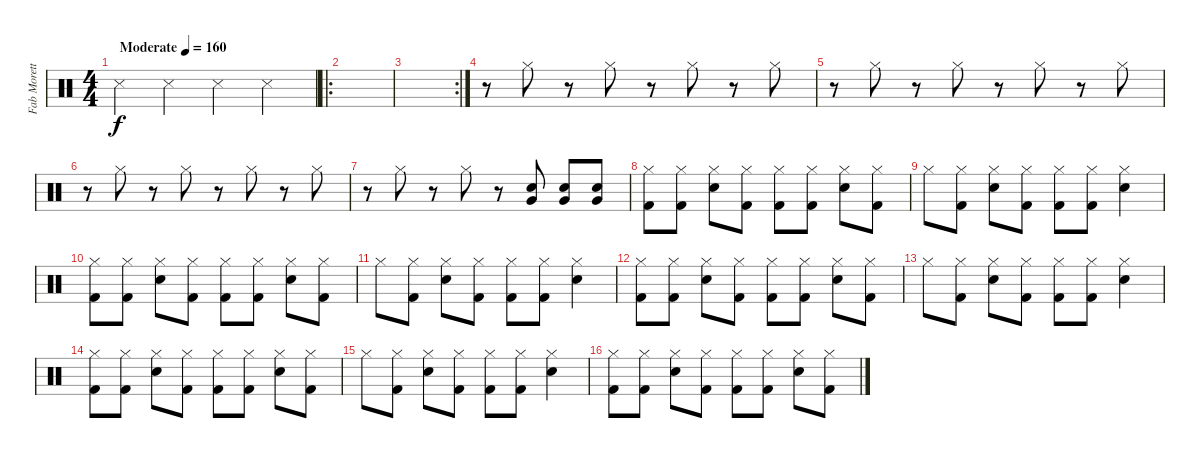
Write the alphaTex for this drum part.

\track ("Fab Moretti " "Fab Morett") {instrument percussion}
\staff {score}
\articulation defaults
\ts (4 4)
\tempo (160 "Moderate")
\clef neutral
\ks c "Snare (side stick) 3".4{dy f} "Snare (side stick) 3".4 "Snare (side stick) 3".4 "Snare (side stick) 3".4
|
\ro
|
\rc 2
|
r.8 "Hi-Hat (closed)".8 r.8 "Hi-Hat (closed)".8 r.8 "Hi-Hat (closed)".8 r.8 "Hi-Hat (closed)".8 |
r.8 "Hi-Hat (closed)".8 r.8 "Hi-Hat (closed)".8 r.8 "Hi-Hat (closed)".8 r.8 "Hi-Hat (closed)".8 |
r.8 "Hi-Hat (closed)".8 r.8 "Hi-Hat (closed)".8 r.8 "Hi-Hat (closed)".8 r.8 "Hi-Hat (closed)".8 |
r.8 "Hi-Hat (closed)".8 r.8 "Hi-Hat (closed)".8 r.8 ("Electric Snare (hit)" "Very Low Tom (hit)").8 ("Electric Snare (hit)" "Very Low Tom (hit)").8 ("Electric Snare (hit)" "Very Low Tom (hit)").8 |
("Kick (hit) 2" "Hi-Hat (closed)").8 ("Kick (hit) 2" "Hi-Hat (closed)").8 ("Electric Snare (hit)" "Hi-Hat (closed)").8 ("Kick (hit) 2" "Hi-Hat (closed)").8 ("Kick (hit) 2" "Hi-Hat (closed)").8 ("Kick (hit) 2" "Hi-Hat (closed)").8 ("Electric Snare (hit)" "Hi-Hat (closed)").8 ("Kick (hit) 2" "Hi-Hat (closed)").8 |
"Hi-Hat (closed)".8 ("Kick (hit) 2" "Hi-Hat (closed)").8 ("Electric Snare (hit)" "Hi-Hat (closed)").8 ("Kick (hit) 2" "Hi-Hat (closed)").8 ("Kick (hit) 2" "Hi-Hat (closed)").8 ("Kick (hit) 2" "Hi-Hat (closed)").8 ("Electric Snare (hit)" "Hi-Hat (closed)").4 |
("Kick (hit) 2" "Hi-Hat (closed)").8 ("Kick (hit) 2" "Hi-Hat (closed)").8 ("Electric Snare (hit)" "Hi-Hat (closed)").8 ("Kick (hit) 2" "Hi-Hat (closed)").8 ("Kick (hit) 2" "Hi-Hat (closed)").8 ("Kick (hit) 2" "Hi-Hat (closed)").8 ("Electric Snare (hit)" "Hi-Hat (closed)").8 ("Kick (hit) 2" "Hi-Hat (closed)").8 |
"Hi-Hat (closed)".8 ("Kick (hit) 2" "Hi-Hat (closed)").8 ("Electric Snare (hit)" "Hi-Hat (closed)").8 ("Kick (hit) 2" "Hi-Hat (closed)").8 ("Kick (hit) 2" "Hi-Hat (closed)").8 ("Kick (hit) 2" "Hi-Hat (closed)").8 ("Electric Snare (hit)" "Hi-Hat (closed)").4 |
("Kick (hit) 2" "Hi-Hat (closed)").8 ("Kick (hit) 2" "Hi-Hat (closed)").8 ("Electric Snare (hit)" "Hi-Hat (closed)").8 ("Kick (hit) 2" "Hi-Hat (closed)").8 ("Kick (hit) 2" "Hi-Hat (closed)").8 ("Kick (hit) 2" "Hi-Hat (closed)").8 ("Electric Snare (hit)" "Hi-Hat (closed)").8 ("Kick (hit) 2" "Hi-Hat (closed)").8 |
"Hi-Hat (closed)".8 ("Kick (hit) 2" "Hi-Hat (closed)").8 ("Electric Snare (hit)" "Hi-Hat (closed)").8 ("Kick (hit) 2" "Hi-Hat (closed)").8 ("Kick (hit) 2" "Hi-Hat (closed)").8 ("Kick (hit) 2" "Hi-Hat (closed)").8 ("Electric Snare (hit)" "Hi-Hat (closed)").4 |
("Kick (hit) 2" "Hi-Hat (closed)").8 ("Kick (hit) 2" "Hi-Hat (closed)").8 ("Electric Snare (hit)" "Hi-Hat (closed)").8 ("Kick (hit) 2" "Hi-Hat (closed)").8 ("Kick (hit) 2" "Hi-Hat (closed)").8 ("Kick (hit) 2" "Hi-Hat (closed)").8 ("Electric Snare (hit)" "Hi-Hat (closed)").8 ("Kick (hit) 2" "Hi-Hat (closed)").8 |
"Hi-Hat (closed)".8 ("Kick (hit) 2" "Hi-Hat (closed)").8 ("Electric Snare (hit)" "Hi-Hat (closed)").8 ("Kick (hit) 2" "Hi-Hat (closed)").8 ("Kick (hit) 2" "Hi-Hat (closed)").8 ("Kick (hit) 2" "Hi-Hat (closed)").8 ("Electric Snare (hit)" "Hi-Hat (closed)").4 |
("Kick (hit) 2" "Hi-Hat (closed)").8 ("Kick (hit) 2" "Hi-Hat (closed)").8 ("Electric Snare (hit)" "Hi-Hat (closed)").8 ("Kick (hit) 2" "Hi-Hat (closed)").8 ("Kick (hit) 2" "Hi-Hat (closed)").8 ("Kick (hit) 2" "Hi-Hat (closed)").8 ("Electric Snare (hit)" "Hi-Hat (closed)").8 ("Kick (hit) 2" "Hi-Hat (closed)").8
